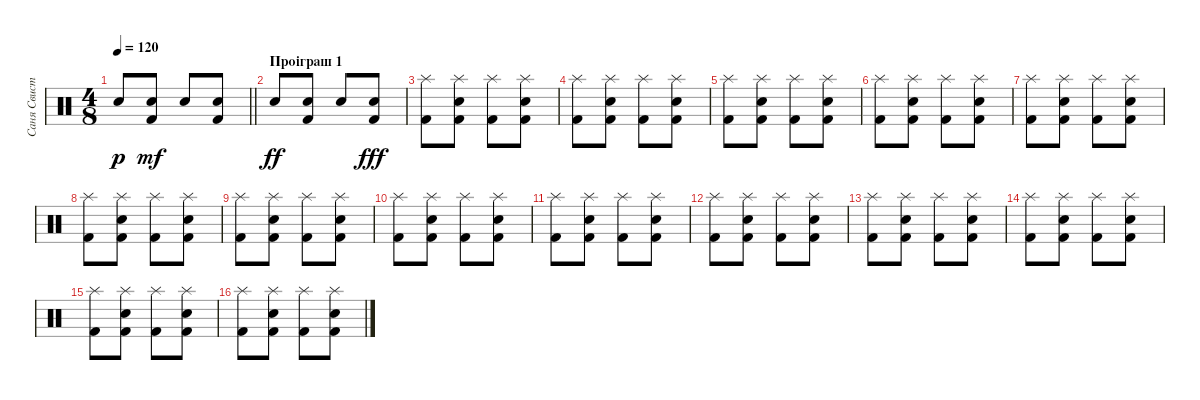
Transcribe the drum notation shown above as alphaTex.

\track ("Саня Свистун - Drums" "Саня Свист") {instrument percussion}
\staff {score}
\articulation defaults
\ts (4 8)
\tempo 120
\clef neutral
\barLineRight lightlight
\ks c "Electric Snare (hit)".8{dy p}
("Electric Snare (hit)" "Kick (hit) 2").8{dy mf} "Electric Snare (hit)".8 ("Electric Snare (hit)" "Kick (hit) 2").8 |
\section ("" "Проіграш 1")
"Electric Snare (hit)".8{dy ff} ("Electric Snare (hit)" "Kick (hit) 2").8 "Electric Snare (hit)".8 ("Electric Snare (hit)" "Kick (hit) 2").8{dy fff} |
("Kick (hit) 2" "Splash (hit)").8 ("Electric Snare (hit)" "Splash (hit)" "Kick (hit) 2").8 ("Kick (hit) 2" "Splash (hit)").8 ("Electric Snare (hit)" "Splash (hit)" "Kick (hit) 2").8 |
("Kick (hit) 2" "Splash (hit)").8 ("Electric Snare (hit)" "Splash (hit)" "Kick (hit) 2").8 ("Kick (hit) 2" "Splash (hit)").8 ("Electric Snare (hit)" "Splash (hit)" "Kick (hit) 2").8 |
("Kick (hit) 2" "Splash (hit)").8 ("Electric Snare (hit)" "Splash (hit)" "Kick (hit) 2").8 ("Kick (hit) 2" "Splash (hit)").8 ("Electric Snare (hit)" "Splash (hit)" "Kick (hit) 2").8 |
("Kick (hit) 2" "Splash (hit)").8 ("Electric Snare (hit)" "Splash (hit)" "Kick (hit) 2").8 ("Kick (hit) 2" "Splash (hit)").8 ("Electric Snare (hit)" "Splash (hit)" "Kick (hit) 2").8 |
("Kick (hit) 2" "Splash (hit)").8 ("Electric Snare (hit)" "Splash (hit)" "Kick (hit) 2").8 ("Kick (hit) 2" "Splash (hit)").8 ("Electric Snare (hit)" "Splash (hit)" "Kick (hit) 2").8 |
("Kick (hit) 2" "Splash (hit)").8 ("Electric Snare (hit)" "Splash (hit)" "Kick (hit) 2").8 ("Kick (hit) 2" "Splash (hit)").8 ("Electric Snare (hit)" "Splash (hit)" "Kick (hit) 2").8 |
("Kick (hit) 2" "Splash (hit)").8 ("Electric Snare (hit)" "Splash (hit)" "Kick (hit) 2").8 ("Kick (hit) 2" "Splash (hit)").8 ("Electric Snare (hit)" "Splash (hit)" "Kick (hit) 2").8 |
("Kick (hit) 2" "Splash (hit)").8 ("Electric Snare (hit)" "Splash (hit)" "Kick (hit) 2").8 ("Kick (hit) 2" "Splash (hit)").8 ("Electric Snare (hit)" "Splash (hit)" "Kick (hit) 2").8 |
("Kick (hit) 2" "Splash (hit)").8 ("Electric Snare (hit)" "Splash (hit)" "Kick (hit) 2").8 ("Kick (hit) 2" "Splash (hit)").8 ("Electric Snare (hit)" "Splash (hit)" "Kick (hit) 2").8 |
("Kick (hit) 2" "Splash (hit)").8 ("Electric Snare (hit)" "Splash (hit)" "Kick (hit) 2").8 ("Kick (hit) 2" "Splash (hit)").8 ("Electric Snare (hit)" "Splash (hit)" "Kick (hit) 2").8 |
("Kick (hit) 2" "Splash (hit)").8 ("Electric Snare (hit)" "Splash (hit)" "Kick (hit) 2").8 ("Kick (hit) 2" "Splash (hit)").8 ("Electric Snare (hit)" "Splash (hit)" "Kick (hit) 2").8 |
("Kick (hit) 2" "Splash (hit)").8 ("Electric Snare (hit)" "Splash (hit)" "Kick (hit) 2").8 ("Kick (hit) 2" "Splash (hit)").8 ("Electric Snare (hit)" "Splash (hit)" "Kick (hit) 2").8 |
("Kick (hit) 2" "Splash (hit)").8 ("Electric Snare (hit)" "Splash (hit)" "Kick (hit) 2").8 ("Kick (hit) 2" "Splash (hit)").8 ("Electric Snare (hit)" "Splash (hit)" "Kick (hit) 2").8 |
("Kick (hit) 2" "Splash (hit)").8 ("Electric Snare (hit)" "Splash (hit)" "Kick (hit) 2").8 ("Kick (hit) 2" "Splash (hit)").8 ("Electric Snare (hit)" "Splash (hit)" "Kick (hit) 2").8
